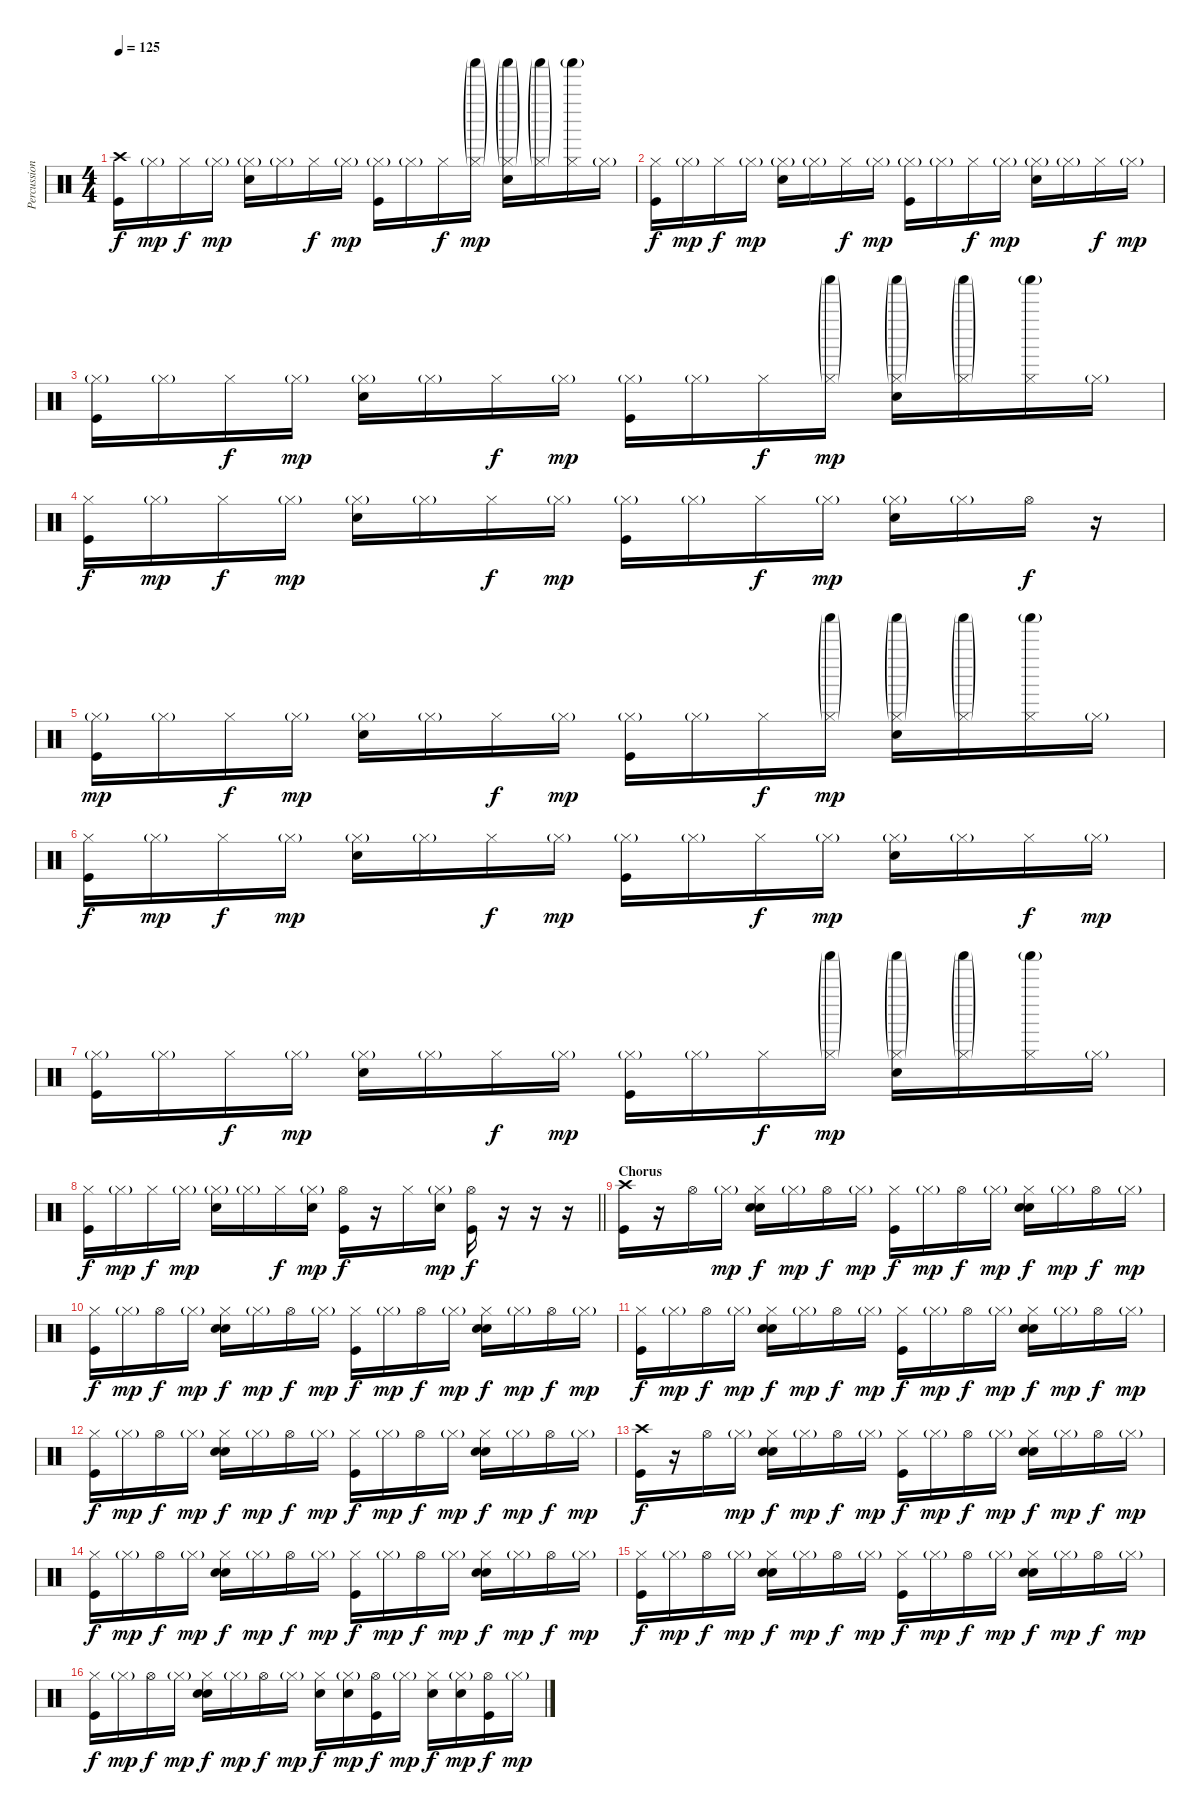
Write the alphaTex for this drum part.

\track ("Percussion" "Percussion") {instrument percussion}
\staff {score}
\articulation defaults
\ts (4 4)
\tempo 125
\clef neutral
\ks c
("Crash high (hit)" "Kick (hit)").16{dy f} "Hi-Hat (closed)"{g}.16{dy mp} "Hi-Hat (closed)".16{dy f} "Hi-Hat (closed)"{g}.16{dy mp} ("Hi-Hat (closed)"{g} "Snare (hit) 2").16 "Hi-Hat (closed)"{g}.16 "Hi-Hat (closed)".16{dy f} "Hi-Hat (closed)"{g}.16{dy mp} ("Hi-Hat (closed)"{g} "Kick (hit)").16 "Hi-Hat (closed)"{g}.16 "Hi-Hat (closed)".16{dy f} ("Shaker (hit)"{g} "Hi-Hat (closed)"{g}).16{dy mp} ("Shaker (hit)"{g} "Hi-Hat (closed)"{g} "Snare (hit) 2").16 ("Shaker (hit)"{g} "Hi-Hat (closed)"{g}).16 ("Shaker (hit)"{g} "Hi-Hat (closed)").16 "Hi-Hat (closed)"{g}.16 |
("Hi-Hat (closed)" "Kick (hit)").16{dy f} "Hi-Hat (closed)"{g}.16{dy mp} "Hi-Hat (closed)".16{dy f} "Hi-Hat (closed)"{g}.16{dy mp} ("Hi-Hat (closed)"{g} "Snare (hit) 2").16 "Hi-Hat (closed)"{g}.16 "Hi-Hat (closed)".16{dy f} "Hi-Hat (closed)"{g}.16{dy mp} ("Hi-Hat (closed)"{g} "Kick (hit)").16 "Hi-Hat (closed)"{g}.16 "Hi-Hat (closed)".16{dy f} "Hi-Hat (closed)"{g}.16{dy mp} ("Hi-Hat (closed)"{g} "Snare (hit) 2").16 "Hi-Hat (closed)"{g}.16 "Hi-Hat (closed)".16{dy f} "Hi-Hat (closed)"{g}.16{dy mp} |
("Hi-Hat (closed)"{g} "Kick (hit)").16 "Hi-Hat (closed)"{g}.16 "Hi-Hat (closed)".16{dy f} "Hi-Hat (closed)"{g}.16{dy mp} ("Hi-Hat (closed)"{g} "Snare (hit) 2").16 "Hi-Hat (closed)"{g}.16 "Hi-Hat (closed)".16{dy f} "Hi-Hat (closed)"{g}.16{dy mp} ("Hi-Hat (closed)"{g} "Kick (hit)").16 "Hi-Hat (closed)"{g}.16 "Hi-Hat (closed)".16{dy f} ("Shaker (hit)"{g} "Hi-Hat (closed)"{g}).16{dy mp} ("Shaker (hit)"{g} "Hi-Hat (closed)"{g} "Snare (hit) 2").16 ("Shaker (hit)"{g} "Hi-Hat (closed)"{g}).16 ("Shaker (hit)"{g} "Hi-Hat (closed)").16 "Hi-Hat (closed)"{g}.16 |
("Hi-Hat (closed)" "Kick (hit)").16{dy f} "Hi-Hat (closed)"{g}.16{dy mp} "Hi-Hat (closed)".16{dy f} "Hi-Hat (closed)"{g}.16{dy mp} ("Hi-Hat (closed)"{g} "Snare (hit) 2").16 "Hi-Hat (closed)"{g}.16 "Hi-Hat (closed)".16{dy f} "Hi-Hat (closed)"{g}.16{dy mp} ("Hi-Hat (closed)"{g} "Kick (hit)").16 "Hi-Hat (closed)"{g}.16 "Hi-Hat (closed)".16{dy f} "Hi-Hat (closed)"{g}.16{dy mp} ("Hi-Hat (closed)"{g} "Snare (hit) 2").16 "Hi-Hat (closed)"{g}.16 "Hi-Hat (open)".16{dy f} r.16 |
("Hi-Hat (closed)"{g} "Kick (hit)").16{dy mp} "Hi-Hat (closed)"{g}.16 "Hi-Hat (closed)".16{dy f} "Hi-Hat (closed)"{g}.16{dy mp} ("Hi-Hat (closed)"{g} "Snare (hit) 2").16 "Hi-Hat (closed)"{g}.16 "Hi-Hat (closed)".16{dy f} "Hi-Hat (closed)"{g}.16{dy mp} ("Hi-Hat (closed)"{g} "Kick (hit)").16 "Hi-Hat (closed)"{g}.16 "Hi-Hat (closed)".16{dy f} ("Shaker (hit)"{g} "Hi-Hat (closed)"{g}).16{dy mp} ("Shaker (hit)"{g} "Hi-Hat (closed)"{g} "Snare (hit) 2").16 ("Shaker (hit)"{g} "Hi-Hat (closed)"{g}).16 ("Shaker (hit)"{g} "Hi-Hat (closed)").16 "Hi-Hat (closed)"{g}.16 |
("Hi-Hat (closed)" "Kick (hit)").16{dy f} "Hi-Hat (closed)"{g}.16{dy mp} "Hi-Hat (closed)".16{dy f} "Hi-Hat (closed)"{g}.16{dy mp} ("Hi-Hat (closed)"{g} "Snare (hit) 2").16 "Hi-Hat (closed)"{g}.16 "Hi-Hat (closed)".16{dy f} "Hi-Hat (closed)"{g}.16{dy mp} ("Hi-Hat (closed)"{g} "Kick (hit)").16 "Hi-Hat (closed)"{g}.16 "Hi-Hat (closed)".16{dy f} "Hi-Hat (closed)"{g}.16{dy mp} ("Hi-Hat (closed)"{g} "Snare (hit) 2").16 "Hi-Hat (closed)"{g}.16 "Hi-Hat (closed)".16{dy f} "Hi-Hat (closed)"{g}.16{dy mp} |
("Hi-Hat (closed)"{g} "Kick (hit)").16 "Hi-Hat (closed)"{g}.16 "Hi-Hat (closed)".16{dy f} "Hi-Hat (closed)"{g}.16{dy mp} ("Hi-Hat (closed)"{g} "Snare (hit) 2").16 "Hi-Hat (closed)"{g}.16 "Hi-Hat (closed)".16{dy f} "Hi-Hat (closed)"{g}.16{dy mp} ("Hi-Hat (closed)"{g} "Kick (hit)").16 "Hi-Hat (closed)"{g}.16 "Hi-Hat (closed)".16{dy f} ("Shaker (hit)"{g} "Hi-Hat (closed)"{g}).16{dy mp} ("Shaker (hit)"{g} "Hi-Hat (closed)"{g} "Snare (hit) 2").16 ("Shaker (hit)"{g} "Hi-Hat (closed)"{g}).16 ("Shaker (hit)"{g} "Hi-Hat (closed)").16 "Hi-Hat (closed)"{g}.16 |
\barLineRight lightlight
("Hi-Hat (closed)" "Kick (hit)").16{dy f} "Hi-Hat (closed)"{g}.16{dy mp} "Hi-Hat (closed)".16{dy f} "Hi-Hat (closed)"{g}.16{dy mp} ("Hi-Hat (closed)"{g} "Snare (hit) 2").16 "Hi-Hat (closed)"{g}.16 "Hi-Hat (closed)".16{dy f} ("Hi-Hat (closed)"{g} "Snare (hit) 2").16{dy mp} ("Hi-Hat (open)" "Kick (hit)").16{dy f} r.16 "Hi-Hat (closed)".16 ("Hi-Hat (closed)"{g} "Snare (hit) 2").16{dy mp} ("Hi-Hat (open)" "Kick (hit)").16{dy f} r.16 r.16 r.16 |
\section ("" "Chorus")
("Crash high (hit)" "Kick (hit)").16 r.16 "Hi-Hat (open)".16 "Hi-Hat (closed)"{g}.16{dy mp} ("Hi-Hat (closed)" "Hand Clap (hit)" "Snare (hit) 2").16{dy f} "Hi-Hat (closed)"{g}.16{dy mp} "Hi-Hat (open)".16{dy f} "Hi-Hat (closed)"{g}.16{dy mp} ("Hi-Hat (closed)" "Kick (hit)").16{dy f} "Hi-Hat (closed)"{g}.16{dy mp} "Hi-Hat (open)".16{dy f} "Hi-Hat (closed)"{g}.16{dy mp} ("Hi-Hat (closed)" "Hand Clap (hit)" "Snare (hit) 2").16{dy f} "Hi-Hat (closed)"{g}.16{dy mp} "Hi-Hat (open)".16{dy f} "Hi-Hat (closed)"{g}.16{dy mp} |
("Hi-Hat (closed)" "Kick (hit)").16{dy f} "Hi-Hat (closed)"{g}.16{dy mp} "Hi-Hat (open)".16{dy f} "Hi-Hat (closed)"{g}.16{dy mp} ("Hi-Hat (closed)" "Hand Clap (hit)" "Snare (hit) 2").16{dy f} "Hi-Hat (closed)"{g}.16{dy mp} "Hi-Hat (open)".16{dy f} "Hi-Hat (closed)"{g}.16{dy mp} ("Hi-Hat (closed)" "Kick (hit)").16{dy f} "Hi-Hat (closed)"{g}.16{dy mp} "Hi-Hat (open)".16{dy f} "Hi-Hat (closed)"{g}.16{dy mp} ("Hi-Hat (closed)" "Hand Clap (hit)" "Snare (hit) 2").16{dy f} "Hi-Hat (closed)"{g}.16{dy mp} "Hi-Hat (open)".16{dy f} "Hi-Hat (closed)"{g}.16{dy mp} |
("Hi-Hat (closed)" "Kick (hit)").16{dy f} "Hi-Hat (closed)"{g}.16{dy mp} "Hi-Hat (open)".16{dy f} "Hi-Hat (closed)"{g}.16{dy mp} ("Hi-Hat (closed)" "Hand Clap (hit)" "Snare (hit) 2").16{dy f} "Hi-Hat (closed)"{g}.16{dy mp} "Hi-Hat (open)".16{dy f} "Hi-Hat (closed)"{g}.16{dy mp} ("Hi-Hat (closed)" "Kick (hit)").16{dy f} "Hi-Hat (closed)"{g}.16{dy mp} "Hi-Hat (open)".16{dy f} "Hi-Hat (closed)"{g}.16{dy mp} ("Hi-Hat (closed)" "Hand Clap (hit)" "Snare (hit) 2").16{dy f} "Hi-Hat (closed)"{g}.16{dy mp} "Hi-Hat (open)".16{dy f} "Hi-Hat (closed)"{g}.16{dy mp} |
("Hi-Hat (closed)" "Kick (hit)").16{dy f} "Hi-Hat (closed)"{g}.16{dy mp} "Hi-Hat (open)".16{dy f} "Hi-Hat (closed)"{g}.16{dy mp} ("Hi-Hat (closed)" "Hand Clap (hit)" "Snare (hit) 2").16{dy f} "Hi-Hat (closed)"{g}.16{dy mp} "Hi-Hat (open)".16{dy f} "Hi-Hat (closed)"{g}.16{dy mp} ("Hi-Hat (closed)" "Kick (hit)").16{dy f} "Hi-Hat (closed)"{g}.16{dy mp} "Hi-Hat (open)".16{dy f} "Hi-Hat (closed)"{g}.16{dy mp} ("Hi-Hat (closed)" "Hand Clap (hit)" "Snare (hit) 2").16{dy f} "Hi-Hat (closed)"{g}.16{dy mp} "Hi-Hat (open)".16{dy f} "Hi-Hat (closed)"{g}.16{dy mp} |
("Crash high (hit)" "Kick (hit)").16{dy f} r.16 "Hi-Hat (open)".16 "Hi-Hat (closed)"{g}.16{dy mp} ("Hi-Hat (closed)" "Hand Clap (hit)" "Snare (hit) 2").16{dy f} "Hi-Hat (closed)"{g}.16{dy mp} "Hi-Hat (open)".16{dy f} "Hi-Hat (closed)"{g}.16{dy mp} ("Hi-Hat (closed)" "Kick (hit)").16{dy f} "Hi-Hat (closed)"{g}.16{dy mp} "Hi-Hat (open)".16{dy f} "Hi-Hat (closed)"{g}.16{dy mp} ("Hi-Hat (closed)" "Hand Clap (hit)" "Snare (hit) 2").16{dy f} "Hi-Hat (closed)"{g}.16{dy mp} "Hi-Hat (open)".16{dy f} "Hi-Hat (closed)"{g}.16{dy mp} |
("Hi-Hat (closed)" "Kick (hit)").16{dy f} "Hi-Hat (closed)"{g}.16{dy mp} "Hi-Hat (open)".16{dy f} "Hi-Hat (closed)"{g}.16{dy mp} ("Hi-Hat (closed)" "Hand Clap (hit)" "Snare (hit) 2").16{dy f} "Hi-Hat (closed)"{g}.16{dy mp} "Hi-Hat (open)".16{dy f} "Hi-Hat (closed)"{g}.16{dy mp} ("Hi-Hat (closed)" "Kick (hit)").16{dy f} "Hi-Hat (closed)"{g}.16{dy mp} "Hi-Hat (open)".16{dy f} "Hi-Hat (closed)"{g}.16{dy mp} ("Hi-Hat (closed)" "Hand Clap (hit)" "Snare (hit) 2").16{dy f} "Hi-Hat (closed)"{g}.16{dy mp} "Hi-Hat (open)".16{dy f} "Hi-Hat (closed)"{g}.16{dy mp} |
("Hi-Hat (closed)" "Kick (hit)").16{dy f} "Hi-Hat (closed)"{g}.16{dy mp} "Hi-Hat (open)".16{dy f} "Hi-Hat (closed)"{g}.16{dy mp} ("Hi-Hat (closed)" "Hand Clap (hit)" "Snare (hit) 2").16{dy f} "Hi-Hat (closed)"{g}.16{dy mp} "Hi-Hat (open)".16{dy f} "Hi-Hat (closed)"{g}.16{dy mp} ("Hi-Hat (closed)" "Kick (hit)").16{dy f} "Hi-Hat (closed)"{g}.16{dy mp} "Hi-Hat (open)".16{dy f} "Hi-Hat (closed)"{g}.16{dy mp} ("Hi-Hat (closed)" "Hand Clap (hit)" "Snare (hit) 2").16{dy f} "Hi-Hat (closed)"{g}.16{dy mp} "Hi-Hat (open)".16{dy f} "Hi-Hat (closed)"{g}.16{dy mp} |
("Hi-Hat (closed)" "Kick (hit)").16{dy f} "Hi-Hat (closed)"{g}.16{dy mp} "Hi-Hat (open)".16{dy f} "Hi-Hat (closed)"{g}.16{dy mp} ("Hi-Hat (closed)" "Hand Clap (hit)" "Snare (hit) 2").16{dy f} "Hi-Hat (closed)"{g}.16{dy mp} "Hi-Hat (open)".16{dy f} "Hi-Hat (closed)"{g}.16{dy mp} ("Hi-Hat (closed)" "Snare (hit) 2").16{dy f} ("Hi-Hat (closed)"{g} "Snare (hit) 2").16{dy mp} ("Hi-Hat (open)" "Kick (hit)").16{dy f} "Hi-Hat (closed)"{g}.16{dy mp} ("Hi-Hat (closed)" "Snare (hit) 2").16{dy f} ("Hi-Hat (closed)"{g} "Snare (hit) 2").16{dy mp} ("Hi-Hat (open)" "Kick (hit)").16{dy f} "Hi-Hat (closed)"{g}.16{dy mp}
